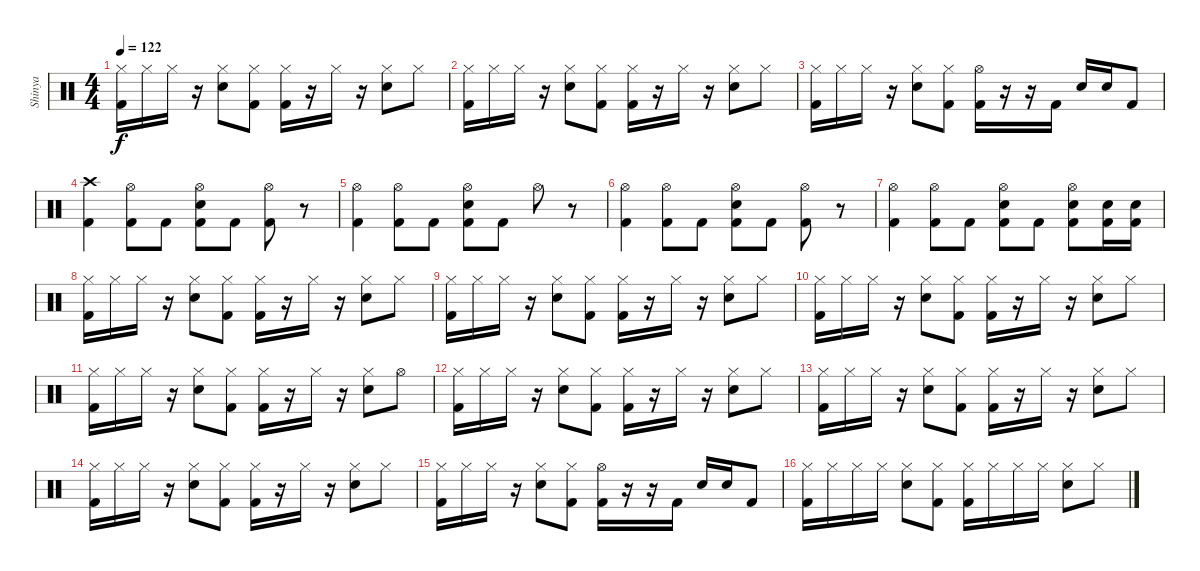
\track ("Shinya" "Shinya") {instrument percussion}
\staff {score}
\articulation defaults
\ts (4 4)
\tempo 122
\clef neutral
\ks c
("Hi-Hat (closed)" "Kick (hit) 2").16{dy f} "Hi-Hat (closed)".16 "Hi-Hat (closed)".16 r.16 ("Hi-Hat (closed)" "Electric Snare (hit)").8 ("Hi-Hat (closed)" "Kick (hit) 2").8 ("Hi-Hat (closed)" "Kick (hit) 2").16 r.16 "Hi-Hat (closed)".16 r.16 ("Hi-Hat (closed)" "Electric Snare (hit)").8 "Hi-Hat (closed)".8 |
("Hi-Hat (closed)" "Kick (hit) 2").16 "Hi-Hat (closed)".16 "Hi-Hat (closed)".16 r.16 ("Hi-Hat (closed)" "Electric Snare (hit)").8 ("Hi-Hat (closed)" "Kick (hit) 2").8 ("Hi-Hat (closed)" "Kick (hit) 2").16 r.16 "Hi-Hat (closed)".16 r.16 ("Hi-Hat (closed)" "Electric Snare (hit)").8 "Hi-Hat (closed)".8 |
("Hi-Hat (closed)" "Kick (hit) 2").16 "Hi-Hat (closed)".16 "Hi-Hat (closed)".16 r.16 ("Hi-Hat (closed)" "Electric Snare (hit)").8 ("Hi-Hat (closed)" "Kick (hit) 2").8 ("Hi-Hat (open)" "Kick (hit) 2").16 r.16 r.16 "Kick (hit) 2".16 "Electric Snare (hit)".16 "Electric Snare (hit)".16 "Kick (hit) 2".8 |
("Crash high (hit)" "Kick (hit) 2").4 ("Hi-Hat (open)" "Kick (hit) 2").8 "Kick (hit) 2".8 ("Hi-Hat (open)" "Electric Snare (hit)" "Kick (hit) 2").8 "Kick (hit) 2".8 ("Hi-Hat (open)" "Kick (hit) 2").8 r.8 |
("Hi-Hat (open)" "Kick (hit) 2").4 ("Hi-Hat (open)" "Kick (hit) 2").8 "Kick (hit) 2".8 ("Hi-Hat (open)" "Electric Snare (hit)" "Kick (hit) 2").8 "Kick (hit) 2".8 "Hi-Hat (open)".8 r.8 |
("Hi-Hat (open)" "Kick (hit) 2").4 ("Hi-Hat (open)" "Kick (hit) 2").8 "Kick (hit) 2".8 ("Hi-Hat (open)" "Electric Snare (hit)" "Kick (hit) 2").8 "Kick (hit) 2".8 ("Hi-Hat (open)" "Kick (hit) 2").8 r.8 |
("Hi-Hat (open)" "Kick (hit) 2").4 ("Hi-Hat (open)" "Kick (hit) 2").8 "Kick (hit) 2".8 ("Hi-Hat (open)" "Electric Snare (hit)" "Kick (hit) 2").8 "Kick (hit) 2".8 ("Hi-Hat (open)" "Electric Snare (hit)" "Kick (hit) 2").8 ("Electric Snare (hit)" "Kick (hit) 2").16 ("Electric Snare (hit)" "Kick (hit) 2").16 |
("Hi-Hat (closed)" "Kick (hit) 2").16 "Hi-Hat (closed)".16 "Hi-Hat (closed)".16 r.16 ("Hi-Hat (closed)" "Electric Snare (hit)").8 ("Hi-Hat (closed)" "Kick (hit) 2").8 ("Hi-Hat (closed)" "Kick (hit) 2").16 r.16 "Hi-Hat (closed)".16 r.16 ("Hi-Hat (closed)" "Electric Snare (hit)").8 "Hi-Hat (closed)".8 |
("Hi-Hat (closed)" "Kick (hit) 2").16 "Hi-Hat (closed)".16 "Hi-Hat (closed)".16 r.16 ("Hi-Hat (closed)" "Electric Snare (hit)").8 ("Hi-Hat (closed)" "Kick (hit) 2").8 ("Hi-Hat (closed)" "Kick (hit) 2").16 r.16 "Hi-Hat (closed)".16 r.16 ("Hi-Hat (closed)" "Electric Snare (hit)").8 "Hi-Hat (closed)".8 |
("Hi-Hat (closed)" "Kick (hit) 2").16 "Hi-Hat (closed)".16 "Hi-Hat (closed)".16 r.16 ("Hi-Hat (closed)" "Electric Snare (hit)").8 ("Hi-Hat (closed)" "Kick (hit) 2").8 ("Hi-Hat (closed)" "Kick (hit) 2").16 r.16 "Hi-Hat (closed)".16 r.16 ("Hi-Hat (closed)" "Electric Snare (hit)").8 "Hi-Hat (closed)".8 |
("Hi-Hat (closed)" "Kick (hit) 2").16 "Hi-Hat (closed)".16 "Hi-Hat (closed)".16 r.16 ("Hi-Hat (closed)" "Electric Snare (hit)").8 ("Hi-Hat (closed)" "Kick (hit) 2").8 ("Hi-Hat (closed)" "Kick (hit) 2").16 r.16 "Hi-Hat (closed)".16 r.16 ("Hi-Hat (closed)" "Electric Snare (hit)").8 "Hi-Hat (open)".8 |
("Hi-Hat (closed)" "Kick (hit) 2").16 "Hi-Hat (closed)".16 "Hi-Hat (closed)".16 r.16 ("Hi-Hat (closed)" "Electric Snare (hit)").8 ("Hi-Hat (closed)" "Kick (hit) 2").8 ("Hi-Hat (closed)" "Kick (hit) 2").16 r.16 "Hi-Hat (closed)".16 r.16 ("Hi-Hat (closed)" "Electric Snare (hit)").8 "Hi-Hat (closed)".8 |
("Hi-Hat (closed)" "Kick (hit) 2").16 "Hi-Hat (closed)".16 "Hi-Hat (closed)".16 r.16 ("Hi-Hat (closed)" "Electric Snare (hit)").8 ("Hi-Hat (closed)" "Kick (hit) 2").8 ("Hi-Hat (closed)" "Kick (hit) 2").16 r.16 "Hi-Hat (closed)".16 r.16 ("Hi-Hat (closed)" "Electric Snare (hit)").8 "Hi-Hat (closed)".8 |
("Hi-Hat (closed)" "Kick (hit) 2").16 "Hi-Hat (closed)".16 "Hi-Hat (closed)".16 r.16 ("Hi-Hat (closed)" "Electric Snare (hit)").8 ("Hi-Hat (closed)" "Kick (hit) 2").8 ("Hi-Hat (closed)" "Kick (hit) 2").16 r.16 "Hi-Hat (closed)".16 r.16 ("Hi-Hat (closed)" "Electric Snare (hit)").8 "Hi-Hat (closed)".8 |
("Hi-Hat (closed)" "Kick (hit) 2").16 "Hi-Hat (closed)".16 "Hi-Hat (closed)".16 r.16 ("Hi-Hat (closed)" "Electric Snare (hit)").8 ("Hi-Hat (closed)" "Kick (hit) 2").8 ("Hi-Hat (open)" "Kick (hit) 2").16 r.16 r.16 "Kick (hit) 2".16 "Electric Snare (hit)".16 "Electric Snare (hit)".16 "Kick (hit) 2".8 |
("Hi-Hat (closed)" "Kick (hit) 2").16 "Hi-Hat (closed)".16 "Hi-Hat (closed)".16 "Hi-Hat (closed)".16 ("Hi-Hat (closed)" "Electric Snare (hit)").8 ("Hi-Hat (closed)" "Kick (hit) 2").8 ("Hi-Hat (closed)" "Kick (hit) 2").16 "Hi-Hat (closed)".16 "Hi-Hat (closed)".16 "Hi-Hat (closed)".16 ("Hi-Hat (closed)" "Electric Snare (hit)").8 "Hi-Hat (closed)".8
